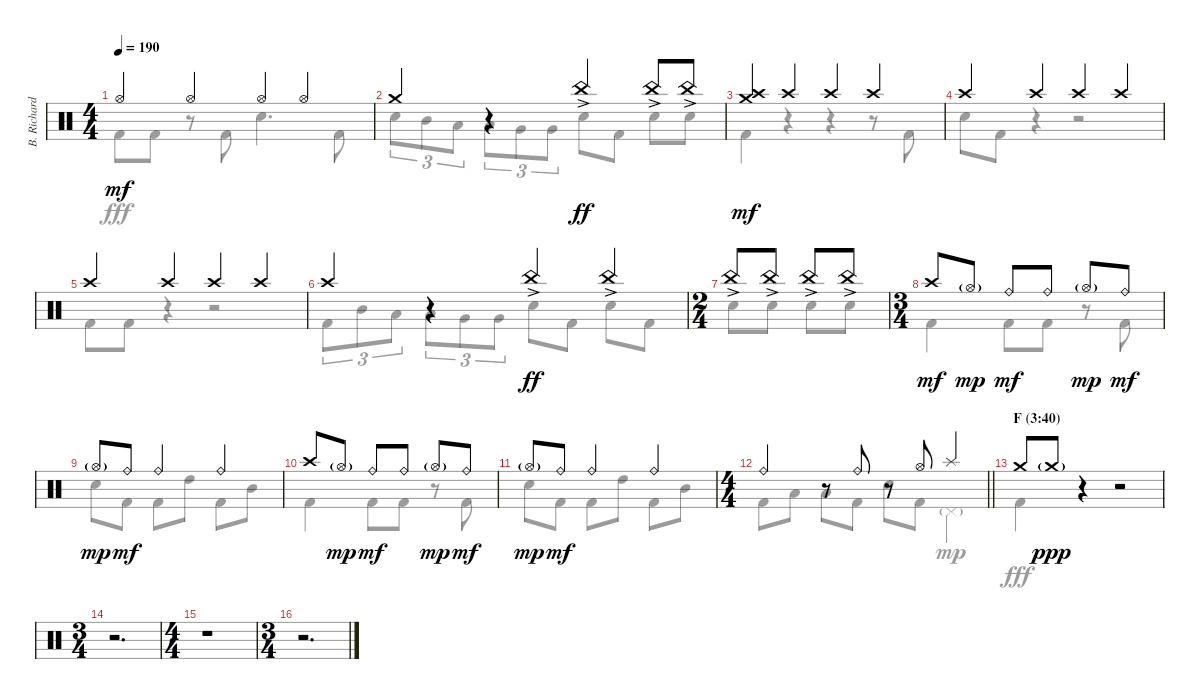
\track ("B. Richardson Drums" "B. Richard") {instrument percussion}
\staff {score}
\articulation defaults
\voice
\ts (4 4)
\tempo 190
\clef neutral
\ks c "Hi-Hat (open)".4{dy mf} "Hi-Hat (open)".4 "Hi-Hat (open)".4 "Hi-Hat (open)".4
|
"Crash medium (hit)".4 r.4 "China (hit)"{ac}.4{dy ff} "China (hit)"{ac}.8 "China (hit)"{ac}.8 |
("Crash high (hit)" "Crash medium (hit)").4{dy mf} "Crash high (hit)".4 "Crash high (hit)".4 "Crash high (hit)".4 |
"Crash high (hit)".4 "Crash high (hit)".4 "Crash high (hit)".4 "Crash high (hit)".4 |
"Crash high (hit)".4 "Crash high (hit)".4 "Crash high (hit)".4 "Crash high (hit)".4 |
"Crash high (hit)".4 r.4 "China (hit)"{ac}.4{dy ff} "China (hit)"{ac}.4 |
\ts (2 4)
"China (hit)"{ac}.8 "China (hit)"{ac}.8 "China (hit)"{ac}.8 "China (hit)"{ac}.8 |
\ts (3 4)
"Crash high (hit)".8{dy mf} "Hi-Hat (open)"{g}.8{dy mp} "Ride (bell)".8{dy mf} "Ride (bell)".8 "Hi-Hat (open)"{g}.8{dy mp} "Ride (bell)".8{dy mf} |
"Hi-Hat (open)"{g}.8{dy mp} "Ride (bell)".8{dy mf} "Ride (bell)".4 "Ride (bell)".4 |
"Crash high (hit)".8 "Hi-Hat (open)"{g}.8{dy mp} "Ride (bell)".8{dy mf} "Ride (bell)".8 "Hi-Hat (open)"{g}.8{dy mp} "Ride (bell)".8{dy mf} |
"Hi-Hat (open)"{g}.8{dy mp} "Ride (bell)".8{dy mf} "Ride (bell)".4 "Ride (bell)".4 |
\ts (4 4)
\barLineRight lightlight "Ride (bell)".4
r.8 "Ride (bell)".8 r.8 "Hi-Hat (open)".8 "Splash (hit)".4 |
\section ("" "F (3:40)")
"Crash medium (hit)".8 "Crash medium (hit)"{g}.8{dy ppp} r.4 r.2 |
\ts (3 4)
r.2{d} |
\ts (4 4)
r.1 |
\ts (3 4)
r.2{d}
\voice
\clef neutral
\ottava regular
\simile none
\ks c "Kick (hit) 2".8{dy fff} "Kick (hit) 2".8
r.8 "Kick (hit) 2".8 "Electric Snare (hit)".4{d} "Kick (hit) 2".8 |
"Electric Snare (hit)".8{tu (3 2)} "Mid Tom (hit)".8{tu (3 2)} "Low Tom (hit)".8{tu (3 2)} "Low Tom (hit)".8{tu (3 2)} "Very Low Tom (hit)".8{tu (3 2)} "Very Low Tom (hit)".8{tu (3 2)} "Electric Snare (hit)".8 "Kick (hit) 2".8 "Electric Snare (hit)".8 "Electric Snare (hit)".8 |
"Kick (hit) 2".4 r.4 r.4 r.8 "Kick (hit) 2".8 |
"Electric Snare (hit)".8 "Kick (hit) 2".8 r.4 r.2 |
"Kick (hit) 2".8 "Kick (hit) 2".8 r.4 r.2 |
"Kick (hit) 2".8{tu (3 2)} "Mid Tom (hit)".8{tu (3 2)} "Low Tom (hit)".8{tu (3 2)} "Low Tom (hit)".8{tu (3 2)} "Very Low Tom (hit)".8{tu (3 2)} "Very Low Tom (hit)".8{tu (3 2)} "Electric Snare (hit)".8 "Kick (hit) 2".8 "Electric Snare (hit)".8 "Kick (hit) 2".8 |
"Electric Snare (hit)".8 "Electric Snare (hit)".8 "Electric Snare (hit)".8 "Electric Snare (hit)".8 |
"Kick (hit) 2".4 "Kick (hit) 2".8 "Kick (hit) 2".8 r.8 "Kick (hit) 2".8 |
"Electric Snare (hit)".8 "Kick (hit) 2".8 "Kick (hit) 2".8 "High Tom (hit)".8 "Kick (hit) 2".8 "Mid Tom (hit)".8 |
"Kick (hit) 2".4 "Kick (hit) 2".8 "Kick (hit) 2".8 r.8 "Kick (hit) 2".8 |
"Electric Snare (hit)".8 "Kick (hit) 2".8 "Kick (hit) 2".8 "High Tom (hit)".8 "Kick (hit) 2".8 "Mid Tom (hit)".8 |
\barLineRight lightlight "Kick (hit) 2".8 "Low Tom (hit)".8 "Low Tom (hit)".8 "Kick (hit) 2".8 "Electric Snare (hit)".8 "Kick (hit) 2".8 "Pedal Hi-Hat (hit)"{g}.4{dy mp}
|
"Kick (hit) 2".4{dy fff} r.4 r.2 |
r.2{d} |
r.1 |
r.2{d}
